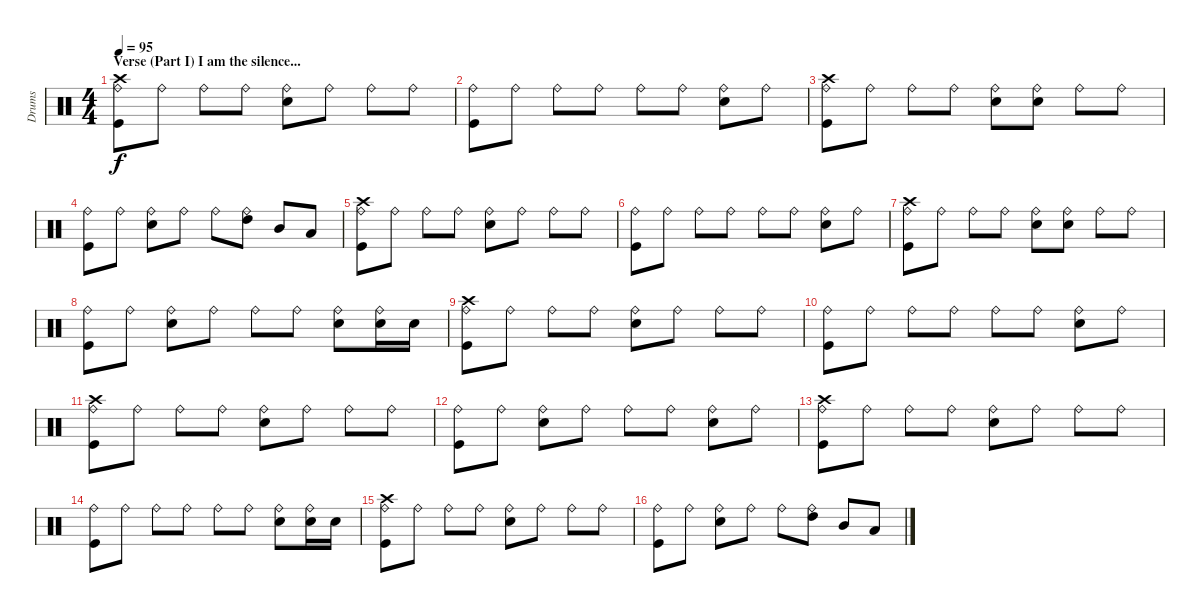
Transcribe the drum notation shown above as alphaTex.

\track ("Drums" "Drums") {instrument percussion}
\staff {score}
\articulation defaults
\ts (4 4)
\section ("" "Verse (Part I) I am the silence...")
\tempo 95
\clef neutral
\ks c
("Crash high (hit)" "Ride (bell)" "Kick (hit)").8{dy f} "Ride (bell)".8 "Ride (bell)".8 "Ride (bell)".8 ("Ride (bell)" "Electric Snare (hit)").8 "Ride (bell)".8 "Ride (bell)".8 "Ride (bell)".8 |
("Ride (bell)" "Kick (hit)").8 "Ride (bell)".8 "Ride (bell)".8 "Ride (bell)".8 "Ride (bell)".8 "Ride (bell)".8 ("Ride (bell)" "Electric Snare (hit)").8 "Ride (bell)".8 |
("Crash high (hit)" "Ride (bell)" "Kick (hit)").8 "Ride (bell)".8 "Ride (bell)".8 "Ride (bell)".8 ("Ride (bell)" "Electric Snare (hit)").8 ("Ride (bell)" "Electric Snare (hit)").8 "Ride (bell)".8 "Ride (bell)".8 |
("Ride (bell)" "Kick (hit)").8 "Ride (bell)".8 ("Ride (bell)" "Electric Snare (hit)").8 "Ride (bell)".8 "Ride (bell)".8 ("Ride (bell)" "High Tom (hit)").8 "Mid Tom (hit)".8 "Low Tom (hit)".8 |
("Crash high (hit)" "Ride (bell)" "Kick (hit)").8 "Ride (bell)".8 "Ride (bell)".8 "Ride (bell)".8 ("Ride (bell)" "Electric Snare (hit)").8 "Ride (bell)".8 "Ride (bell)".8 "Ride (bell)".8 |
("Ride (bell)" "Kick (hit)").8 "Ride (bell)".8 "Ride (bell)".8 "Ride (bell)".8 "Ride (bell)".8 "Ride (bell)".8 ("Ride (bell)" "Electric Snare (hit)").8 "Ride (bell)".8 |
("Crash high (hit)" "Ride (bell)" "Kick (hit)").8 "Ride (bell)".8 "Ride (bell)".8 "Ride (bell)".8 ("Ride (bell)" "Electric Snare (hit)").8 ("Ride (bell)" "Electric Snare (hit)").8 "Ride (bell)".8 "Ride (bell)".8 |
("Ride (bell)" "Kick (hit)").8 "Ride (bell)".8 ("Ride (bell)" "Electric Snare (hit)").8 "Ride (bell)".8 "Ride (bell)".8 "Ride (bell)".8 ("Ride (bell)" "Electric Snare (hit)").8 ("Ride (bell)" "Electric Snare (hit)").16 "Electric Snare (hit)".16 |
("Crash high (hit)" "Ride (bell)" "Kick (hit)").8 "Ride (bell)".8 "Ride (bell)".8 "Ride (bell)".8 ("Ride (bell)" "Electric Snare (hit)").8 "Ride (bell)".8 "Ride (bell)".8 "Ride (bell)".8 |
("Ride (bell)" "Kick (hit)").8 "Ride (bell)".8 "Ride (bell)".8 "Ride (bell)".8 "Ride (bell)".8 "Ride (bell)".8 ("Ride (bell)" "Electric Snare (hit)").8 "Ride (bell)".8 |
("Crash high (hit)" "Ride (bell)" "Kick (hit)").8 "Ride (bell)".8 "Ride (bell)".8 "Ride (bell)".8 ("Ride (bell)" "Electric Snare (hit)").8 "Ride (bell)".8 "Ride (bell)".8 "Ride (bell)".8 |
("Ride (bell)" "Kick (hit)").8 "Ride (bell)".8 ("Ride (bell)" "Electric Snare (hit)").8 "Ride (bell)".8 "Ride (bell)".8 "Ride (bell)".8 ("Ride (bell)" "Electric Snare (hit)").8 "Ride (bell)".8 |
("Crash high (hit)" "Ride (bell)" "Kick (hit)").8 "Ride (bell)".8 "Ride (bell)".8 "Ride (bell)".8 ("Ride (bell)" "Electric Snare (hit)").8 "Ride (bell)".8 "Ride (bell)".8 "Ride (bell)".8 |
("Ride (bell)" "Kick (hit)").8 "Ride (bell)".8 "Ride (bell)".8 "Ride (bell)".8 "Ride (bell)".8 "Ride (bell)".8 ("Ride (bell)" "Electric Snare (hit)").8 ("Ride (bell)" "Electric Snare (hit)").16 "Electric Snare (hit)".16 |
("Crash high (hit)" "Ride (bell)" "Kick (hit)").8 "Ride (bell)".8 "Ride (bell)".8 "Ride (bell)".8 ("Ride (bell)" "Electric Snare (hit)").8 "Ride (bell)".8 "Ride (bell)".8 "Ride (bell)".8 |
("Ride (bell)" "Kick (hit)").8 "Ride (bell)".8 ("Ride (bell)" "Electric Snare (hit)").8 "Ride (bell)".8 "Ride (bell)".8 ("Ride (bell)" "High Tom (hit)").8 "Mid Tom (hit)".8 "Low Tom (hit)".8
